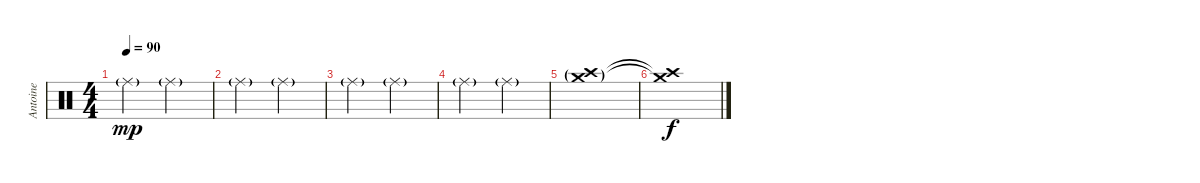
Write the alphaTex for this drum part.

\track ("Antoine" "Antoine") {instrument percussion}
\staff {score}
\articulation defaults
\ts (4 4)
\tempo 90
\clef neutral
\ks c "Ride (middle)"{g}.2{dy mp} "Ride (middle)"{g}.2
|
"Ride (middle)"{g}.2 "Ride (middle)"{g}.2 |
"Ride (middle)"{g}.2 "Ride (middle)"{g}.2 |
"Ride (middle)"{g}.2 "Ride (middle)"{g}.2 |
("Crash medium (hit)"{g} "Crash high (hit)"{g}).1 |
("Crash medium (hit)"{t} "Crash high (hit)"{t}).1{dy f}
